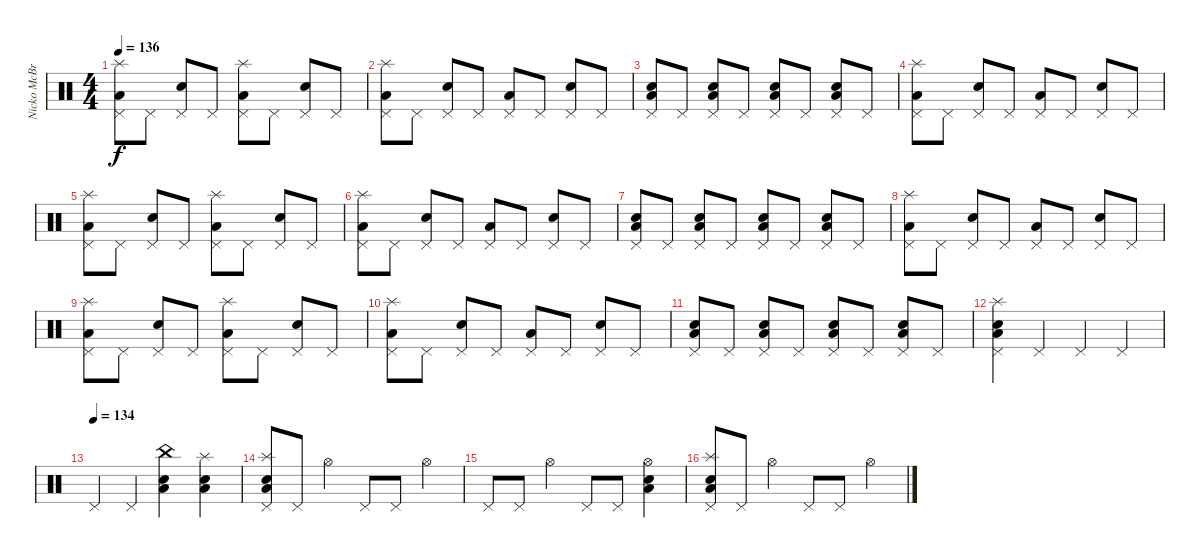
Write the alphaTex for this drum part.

\track ("Nicko McBrian" "Nicko McBr") {instrument percussion}
\staff {score}
\articulation defaults
\ts (4 4)
\tempo 136
\clef neutral
\ks c
("Low Floor Tom (hit)" "Pedal Hi-Hat (hit)" "Splash (hit)").8{dy f} "Pedal Hi-Hat (hit)".8 ("Electric Snare (hit)" "Pedal Hi-Hat (hit)").8 "Pedal Hi-Hat (hit)".8 ("Low Floor Tom (hit)" "Pedal Hi-Hat (hit)" "Splash (hit)").8 "Pedal Hi-Hat (hit)".8 ("Electric Snare (hit)" "Pedal Hi-Hat (hit)").8 "Pedal Hi-Hat (hit)".8 |
("Low Floor Tom (hit)" "Pedal Hi-Hat (hit)" "Splash (hit)").8 "Pedal Hi-Hat (hit)".8 ("Electric Snare (hit)" "Pedal Hi-Hat (hit)").8 "Pedal Hi-Hat (hit)".8 ("Low Floor Tom (hit)" "Pedal Hi-Hat (hit)").8 "Pedal Hi-Hat (hit)".8 ("Electric Snare (hit)" "Pedal Hi-Hat (hit)").8 "Pedal Hi-Hat (hit)".8 |
("Electric Snare (hit)" "Low Floor Tom (hit)" "Pedal Hi-Hat (hit)").8 "Pedal Hi-Hat (hit)".8 ("Electric Snare (hit)" "Low Floor Tom (hit)" "Pedal Hi-Hat (hit)").8 "Pedal Hi-Hat (hit)".8 ("Electric Snare (hit)" "Low Floor Tom (hit)" "Pedal Hi-Hat (hit)").8 "Pedal Hi-Hat (hit)".8 ("Electric Snare (hit)" "Low Floor Tom (hit)" "Pedal Hi-Hat (hit)").8 "Pedal Hi-Hat (hit)".8 |
("Low Floor Tom (hit)" "Pedal Hi-Hat (hit)" "Splash (hit)").8 "Pedal Hi-Hat (hit)".8 ("Electric Snare (hit)" "Pedal Hi-Hat (hit)").8 "Pedal Hi-Hat (hit)".8 ("Low Floor Tom (hit)" "Pedal Hi-Hat (hit)").8 "Pedal Hi-Hat (hit)".8 ("Electric Snare (hit)" "Pedal Hi-Hat (hit)").8 "Pedal Hi-Hat (hit)".8 |
("Low Floor Tom (hit)" "Pedal Hi-Hat (hit)" "Splash (hit)").8 "Pedal Hi-Hat (hit)".8 ("Electric Snare (hit)" "Pedal Hi-Hat (hit)").8 "Pedal Hi-Hat (hit)".8 ("Low Floor Tom (hit)" "Pedal Hi-Hat (hit)" "Splash (hit)").8 "Pedal Hi-Hat (hit)".8 ("Electric Snare (hit)" "Pedal Hi-Hat (hit)").8 "Pedal Hi-Hat (hit)".8 |
("Low Floor Tom (hit)" "Pedal Hi-Hat (hit)" "Splash (hit)").8 "Pedal Hi-Hat (hit)".8 ("Electric Snare (hit)" "Pedal Hi-Hat (hit)").8 "Pedal Hi-Hat (hit)".8 ("Low Floor Tom (hit)" "Pedal Hi-Hat (hit)").8 "Pedal Hi-Hat (hit)".8 ("Electric Snare (hit)" "Pedal Hi-Hat (hit)").8 "Pedal Hi-Hat (hit)".8 |
("Electric Snare (hit)" "Low Floor Tom (hit)" "Pedal Hi-Hat (hit)").8 "Pedal Hi-Hat (hit)".8 ("Electric Snare (hit)" "Low Floor Tom (hit)" "Pedal Hi-Hat (hit)").8 "Pedal Hi-Hat (hit)".8 ("Electric Snare (hit)" "Low Floor Tom (hit)" "Pedal Hi-Hat (hit)").8 "Pedal Hi-Hat (hit)".8 ("Electric Snare (hit)" "Low Floor Tom (hit)" "Pedal Hi-Hat (hit)").8 "Pedal Hi-Hat (hit)".8 |
("Low Floor Tom (hit)" "Pedal Hi-Hat (hit)" "Splash (hit)").8 "Pedal Hi-Hat (hit)".8 ("Electric Snare (hit)" "Pedal Hi-Hat (hit)").8 "Pedal Hi-Hat (hit)".8 ("Low Floor Tom (hit)" "Pedal Hi-Hat (hit)").8 "Pedal Hi-Hat (hit)".8 ("Electric Snare (hit)" "Pedal Hi-Hat (hit)").8 "Pedal Hi-Hat (hit)".8 |
("Low Floor Tom (hit)" "Pedal Hi-Hat (hit)" "Splash (hit)").8 "Pedal Hi-Hat (hit)".8 ("Electric Snare (hit)" "Pedal Hi-Hat (hit)").8 "Pedal Hi-Hat (hit)".8 ("Low Floor Tom (hit)" "Pedal Hi-Hat (hit)" "Splash (hit)").8 "Pedal Hi-Hat (hit)".8 ("Electric Snare (hit)" "Pedal Hi-Hat (hit)").8 "Pedal Hi-Hat (hit)".8 |
("Low Floor Tom (hit)" "Pedal Hi-Hat (hit)" "Splash (hit)").8 "Pedal Hi-Hat (hit)".8 ("Electric Snare (hit)" "Pedal Hi-Hat (hit)").8 "Pedal Hi-Hat (hit)".8 ("Low Floor Tom (hit)" "Pedal Hi-Hat (hit)").8 "Pedal Hi-Hat (hit)".8 ("Electric Snare (hit)" "Pedal Hi-Hat (hit)").8 "Pedal Hi-Hat (hit)".8 |
("Electric Snare (hit)" "Low Floor Tom (hit)" "Pedal Hi-Hat (hit)").8 "Pedal Hi-Hat (hit)".8 ("Electric Snare (hit)" "Low Floor Tom (hit)" "Pedal Hi-Hat (hit)").8 "Pedal Hi-Hat (hit)".8 ("Electric Snare (hit)" "Low Floor Tom (hit)" "Pedal Hi-Hat (hit)").8 "Pedal Hi-Hat (hit)".8 ("Electric Snare (hit)" "Low Floor Tom (hit)" "Pedal Hi-Hat (hit)").8 "Pedal Hi-Hat (hit)".8 |
("Electric Snare (hit)" "Low Floor Tom (hit)" "Pedal Hi-Hat (hit)" "Splash (hit)").4 "Pedal Hi-Hat (hit)".4 "Pedal Hi-Hat (hit)".4 "Pedal Hi-Hat (hit)".4 |
\tempo (134)
"Pedal Hi-Hat (hit)".4 "Pedal Hi-Hat (hit)".4 ("Electric Snare (hit)" "Low Floor Tom (hit)" "China (hit)").4 ("Electric Snare (hit)" "Low Floor Tom (hit)" "Splash (hit)").4 |
("Electric Snare (hit)" "Low Floor Tom (hit)" "Pedal Hi-Hat (hit)" "Splash (hit)").8 "Pedal Hi-Hat (hit)".8 "Hi-Hat (open)".4 "Pedal Hi-Hat (hit)".8 "Pedal Hi-Hat (hit)".8 "Hi-Hat (open)".4 |
"Pedal Hi-Hat (hit)".8 "Pedal Hi-Hat (hit)".8 "Hi-Hat (open)".4 "Pedal Hi-Hat (hit)".8 "Pedal Hi-Hat (hit)".8 ("Electric Snare (hit)" "Low Floor Tom (hit)" "Hi-Hat (open)").4 |
("Electric Snare (hit)" "Low Floor Tom (hit)" "Pedal Hi-Hat (hit)" "Splash (hit)").8 "Pedal Hi-Hat (hit)".8 "Hi-Hat (open)".4 "Pedal Hi-Hat (hit)".8 "Pedal Hi-Hat (hit)".8 "Hi-Hat (open)".4
